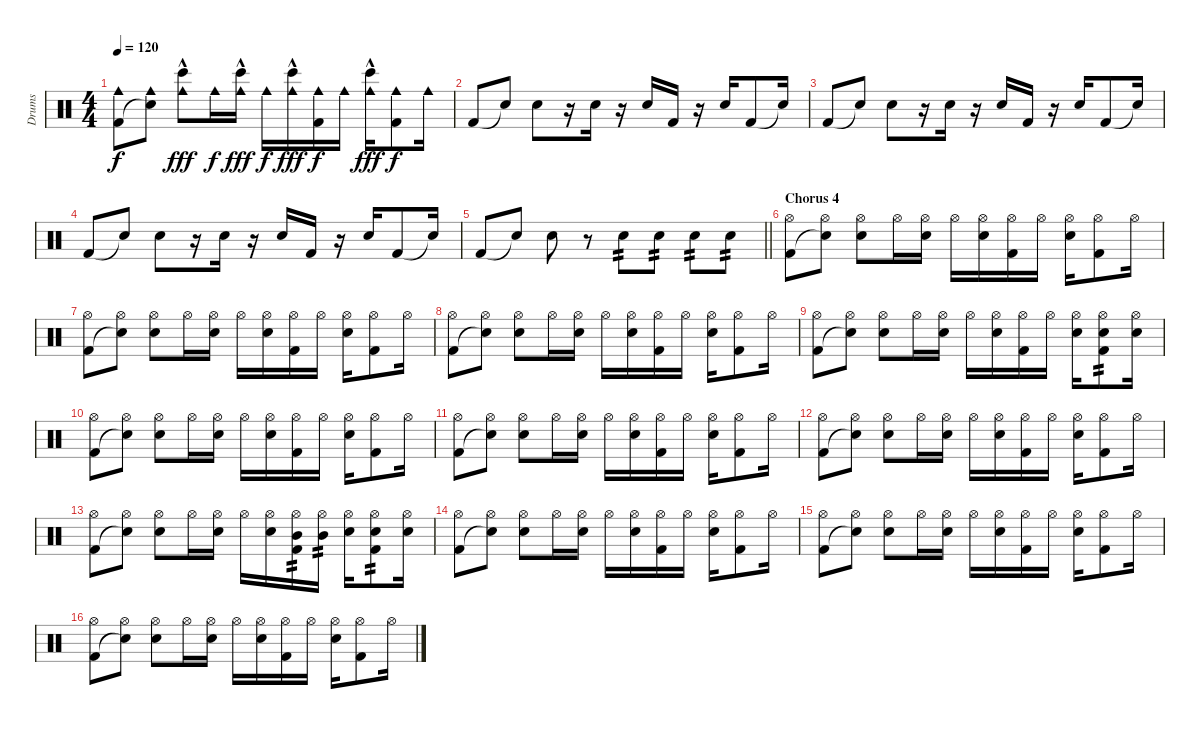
\track ("Drums" "Drums") {instrument percussion}
\staff {score}
\articulation defaults
\ts (4 4)
\tempo 120
\clef neutral
\ks c
("Cowbell medium (hit)" "Kick (hit) 2").8{dy f} ("Cowbell medium (hit)" "Snare (hit)"{t}).8 ("Cowbell medium (hit)" "Bongo High (hit)"{hac}).8{dy fff} "Cowbell medium (hit)".16{dy f} ("Cowbell medium (hit)" "Bongo High (hit)"{hac}).16{dy fff} "Cowbell medium (hit)".16{dy f} ("Cowbell medium (hit)" "Bongo High (hit)"{hac}).16{dy fff} ("Cowbell medium (hit)" "Kick (hit) 2").16{dy f} "Cowbell medium (hit)".16 ("Cowbell medium (hit)" "Bongo High (hit)"{hac}).16{dy fff} ("Cowbell medium (hit)" "Kick (hit) 2").8{dy f} "Cowbell medium (hit)".16 |
"Kick (hit) 2".8 "Snare (hit)"{t}.8 "Electric Snare (hit)".8 r.16 "Electric Snare (hit)".16 r.16 "Electric Snare (hit)".16 "Kick (hit) 2".16 r.16 "Electric Snare (hit)".16 "Kick (hit) 2".8 "Snare (hit)"{t}.16 |
"Kick (hit) 2".8 "Snare (hit)"{t}.8 "Electric Snare (hit)".8 r.16 "Electric Snare (hit)".16 r.16 "Electric Snare (hit)".16 "Kick (hit) 2".16 r.16 "Electric Snare (hit)".16 "Kick (hit) 2".8 "Snare (hit)"{t}.16 |
"Kick (hit) 2".8 "Snare (hit)"{t}.8 "Electric Snare (hit)".8 r.16 "Electric Snare (hit)".16 r.16 "Electric Snare (hit)".16 "Kick (hit) 2".16 r.16 "Electric Snare (hit)".16 "Kick (hit) 2".8 "Snare (hit)"{t}.16 |
\barLineRight lightlight "Kick (hit) 2".8 "Snare (hit)"{t}.8 "Electric Snare (hit)".8
r.8 "Electric Snare (hit)".8{tp 2} "Electric Snare (hit)".8{tp 2} "Electric Snare (hit)".8{tp 2} "Electric Snare (hit)".8{tp 2} |
\section ("" "Chorus 4")
("Hi-Hat (open)" "Kick (hit) 2").8 ("Hi-Hat (open)" "Snare (hit)"{t}).8 ("Hi-Hat (open)" "Electric Snare (hit)").8 "Hi-Hat (open)".16 ("Hi-Hat (open)" "Electric Snare (hit)").16 "Hi-Hat (open)".16 ("Hi-Hat (open)" "Electric Snare (hit)").16 ("Hi-Hat (open)" "Kick (hit) 2").16 "Hi-Hat (open)".16 ("Hi-Hat (open)" "Electric Snare (hit)").16 ("Hi-Hat (open)" "Kick (hit) 2").8 "Hi-Hat (open)".16 |
("Hi-Hat (open)" "Kick (hit) 2").8 ("Hi-Hat (open)" "Snare (hit)"{t}).8 ("Hi-Hat (open)" "Electric Snare (hit)").8 "Hi-Hat (open)".16 ("Hi-Hat (open)" "Electric Snare (hit)").16 "Hi-Hat (open)".16 ("Hi-Hat (open)" "Electric Snare (hit)").16 ("Hi-Hat (open)" "Kick (hit) 2").16 "Hi-Hat (open)".16 ("Hi-Hat (open)" "Electric Snare (hit)").16 ("Hi-Hat (open)" "Kick (hit) 2").8 "Hi-Hat (open)".16 |
("Hi-Hat (open)" "Kick (hit) 2").8 ("Hi-Hat (open)" "Snare (hit)"{t}).8 ("Hi-Hat (open)" "Electric Snare (hit)").8 "Hi-Hat (open)".16 ("Hi-Hat (open)" "Electric Snare (hit)").16 "Hi-Hat (open)".16 ("Hi-Hat (open)" "Electric Snare (hit)").16 ("Hi-Hat (open)" "Kick (hit) 2").16 "Hi-Hat (open)".16 ("Hi-Hat (open)" "Electric Snare (hit)").16 ("Hi-Hat (open)" "Kick (hit) 2").8 "Hi-Hat (open)".16 |
("Hi-Hat (open)" "Kick (hit) 2").8 ("Hi-Hat (open)" "Snare (hit)"{t}).8 ("Hi-Hat (open)" "Electric Snare (hit)").8 "Hi-Hat (open)".16 ("Hi-Hat (open)" "Electric Snare (hit)").16 "Hi-Hat (open)".16 ("Hi-Hat (open)" "Electric Snare (hit)").16 ("Hi-Hat (open)" "Kick (hit) 2").16 "Hi-Hat (open)".16 ("Hi-Hat (open)" "Electric Snare (hit)").16 ("Hi-Hat (open)" "Electric Snare (hit)" "Kick (hit) 2").8{tp 2} ("Hi-Hat (open)" "Electric Snare (hit)").16 |
("Hi-Hat (open)" "Kick (hit) 2").8 ("Hi-Hat (open)" "Snare (hit)"{t}).8 ("Hi-Hat (open)" "Electric Snare (hit)").8 "Hi-Hat (open)".16 ("Hi-Hat (open)" "Electric Snare (hit)").16 "Hi-Hat (open)".16 ("Hi-Hat (open)" "Electric Snare (hit)").16 ("Hi-Hat (open)" "Kick (hit) 2").16 "Hi-Hat (open)".16 ("Hi-Hat (open)" "Electric Snare (hit)").16 ("Hi-Hat (open)" "Kick (hit) 2").8 "Hi-Hat (open)".16 |
("Hi-Hat (open)" "Kick (hit) 2").8 ("Hi-Hat (open)" "Snare (hit)"{t}).8 ("Hi-Hat (open)" "Electric Snare (hit)").8 "Hi-Hat (open)".16 ("Hi-Hat (open)" "Electric Snare (hit)").16 "Hi-Hat (open)".16 ("Hi-Hat (open)" "Electric Snare (hit)").16 ("Hi-Hat (open)" "Kick (hit) 2").16 "Hi-Hat (open)".16 ("Hi-Hat (open)" "Electric Snare (hit)").16 ("Hi-Hat (open)" "Kick (hit) 2").8 "Hi-Hat (open)".16 |
("Hi-Hat (open)" "Kick (hit) 2").8 ("Hi-Hat (open)" "Snare (hit)"{t}).8 ("Hi-Hat (open)" "Electric Snare (hit)").8 "Hi-Hat (open)".16 ("Hi-Hat (open)" "Electric Snare (hit)").16 "Hi-Hat (open)".16 ("Hi-Hat (open)" "Electric Snare (hit)").16 ("Hi-Hat (open)" "Kick (hit) 2").16 "Hi-Hat (open)".16 ("Hi-Hat (open)" "Electric Snare (hit)").16 ("Hi-Hat (open)" "Kick (hit) 2").8 "Hi-Hat (open)".16 |
("Hi-Hat (open)" "Kick (hit) 2").8 ("Hi-Hat (open)" "Snare (hit)"{t}).8 ("Hi-Hat (open)" "Electric Snare (hit)").8 "Hi-Hat (open)".16 ("Hi-Hat (open)" "Electric Snare (hit)").16 "Hi-Hat (open)".16 ("Hi-Hat (open)" "Electric Snare (hit)").16 ("Hi-Hat (open)" "Mid Tom (hit)" "Kick (hit) 2").16{tp 2} ("Hi-Hat (open)" "Mid Tom (hit)").16{tp 2} ("Hi-Hat (open)" "Electric Snare (hit)").16 ("Hi-Hat (open)" "Electric Snare (hit)" "Kick (hit) 2").8{tp 2} ("Hi-Hat (open)" "Electric Snare (hit)").16 |
("Hi-Hat (open)" "Kick (hit) 2").8 ("Hi-Hat (open)" "Snare (hit)"{t}).8 ("Hi-Hat (open)" "Electric Snare (hit)").8 "Hi-Hat (open)".16 ("Hi-Hat (open)" "Electric Snare (hit)").16 "Hi-Hat (open)".16 ("Hi-Hat (open)" "Electric Snare (hit)").16 ("Hi-Hat (open)" "Kick (hit) 2").16 "Hi-Hat (open)".16 ("Hi-Hat (open)" "Electric Snare (hit)").16 ("Hi-Hat (open)" "Kick (hit) 2").8 "Hi-Hat (open)".16 |
("Hi-Hat (open)" "Kick (hit) 2").8 ("Hi-Hat (open)" "Snare (hit)"{t}).8 ("Hi-Hat (open)" "Electric Snare (hit)").8 "Hi-Hat (open)".16 ("Hi-Hat (open)" "Electric Snare (hit)").16 "Hi-Hat (open)".16 ("Hi-Hat (open)" "Electric Snare (hit)").16 ("Hi-Hat (open)" "Kick (hit) 2").16 "Hi-Hat (open)".16 ("Hi-Hat (open)" "Electric Snare (hit)").16 ("Hi-Hat (open)" "Kick (hit) 2").8 "Hi-Hat (open)".16 |
("Hi-Hat (open)" "Kick (hit) 2").8 ("Hi-Hat (open)" "Snare (hit)"{t}).8 ("Hi-Hat (open)" "Electric Snare (hit)").8 "Hi-Hat (open)".16 ("Hi-Hat (open)" "Electric Snare (hit)").16 "Hi-Hat (open)".16 ("Hi-Hat (open)" "Electric Snare (hit)").16 ("Hi-Hat (open)" "Kick (hit) 2").16 "Hi-Hat (open)".16 ("Hi-Hat (open)" "Electric Snare (hit)").16 ("Hi-Hat (open)" "Kick (hit) 2").8 "Hi-Hat (open)".16
